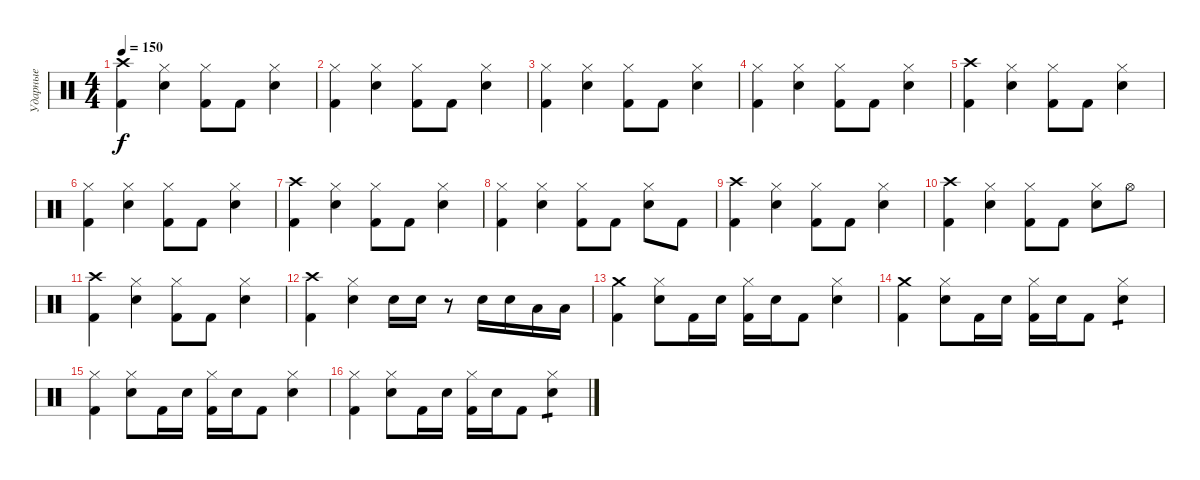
\track ("Ударные" "Ударные") {instrument percussion}
\staff {score}
\articulation defaults
\ts (4 4)
\tempo 150
\clef neutral
\ks c
("Crash high (hit)" "Kick (hit) 2").4{dy f} ("Hi-Hat (closed)" "Electric Snare (hit)").4 ("Hi-Hat (closed)" "Kick (hit) 2").8 "Kick (hit) 2".8 ("Hi-Hat (closed)" "Electric Snare (hit)").4 |
("Hi-Hat (closed)" "Kick (hit) 2").4 ("Hi-Hat (closed)" "Electric Snare (hit)").4 ("Hi-Hat (closed)" "Kick (hit) 2").8 "Kick (hit) 2".8 ("Hi-Hat (closed)" "Electric Snare (hit)").4 |
("Hi-Hat (closed)" "Kick (hit) 2").4 ("Hi-Hat (closed)" "Electric Snare (hit)").4 ("Hi-Hat (closed)" "Kick (hit) 2").8 "Kick (hit) 2".8 ("Hi-Hat (closed)" "Electric Snare (hit)").4 |
("Hi-Hat (closed)" "Kick (hit) 2").4 ("Hi-Hat (closed)" "Electric Snare (hit)").4 ("Hi-Hat (closed)" "Kick (hit) 2").8 "Kick (hit) 2".8 ("Hi-Hat (closed)" "Electric Snare (hit)").4 |
("Crash high (hit)" "Kick (hit) 2").4 ("Hi-Hat (closed)" "Electric Snare (hit)").4 ("Hi-Hat (closed)" "Kick (hit) 2").8 "Kick (hit) 2".8 ("Hi-Hat (closed)" "Electric Snare (hit)").4 |
("Hi-Hat (closed)" "Kick (hit) 2").4 ("Hi-Hat (closed)" "Electric Snare (hit)").4 ("Hi-Hat (closed)" "Kick (hit) 2").8 "Kick (hit) 2".8 ("Hi-Hat (closed)" "Electric Snare (hit)").4 |
("Crash high (hit)" "Kick (hit) 2").4 ("Hi-Hat (closed)" "Electric Snare (hit)").4 ("Hi-Hat (closed)" "Kick (hit) 2").8 "Kick (hit) 2".8 ("Hi-Hat (closed)" "Electric Snare (hit)").4 |
("Hi-Hat (closed)" "Kick (hit) 2").4 ("Hi-Hat (closed)" "Electric Snare (hit)").4 ("Hi-Hat (closed)" "Kick (hit) 2").8 "Kick (hit) 2".8 ("Hi-Hat (closed)" "Electric Snare (hit)").8 "Kick (hit) 2".8 |
("Crash high (hit)" "Kick (hit) 2").4 ("Hi-Hat (closed)" "Electric Snare (hit)").4 ("Hi-Hat (closed)" "Kick (hit) 2").8 "Kick (hit) 2".8 ("Hi-Hat (closed)" "Electric Snare (hit)").4 |
("Crash high (hit)" "Kick (hit) 2").4 ("Hi-Hat (closed)" "Electric Snare (hit)").4 ("Hi-Hat (closed)" "Kick (hit) 2").8 "Kick (hit) 2".8 ("Hi-Hat (closed)" "Electric Snare (hit)").8 "Hi-Hat (open)".8 |
("Crash high (hit)" "Kick (hit) 2").4 ("Hi-Hat (closed)" "Electric Snare (hit)").4 ("Hi-Hat (closed)" "Kick (hit) 2").8 "Kick (hit) 2".8 ("Hi-Hat (closed)" "Electric Snare (hit)").4 |
("Crash high (hit)" "Kick (hit) 2").4 ("Hi-Hat (closed)" "Electric Snare (hit)").4 "Electric Snare (hit)".16 "Electric Snare (hit)".16 r.8 "Electric Snare (hit)".16 "Electric Snare (hit)".16 "Low Tom (hit)".16 "Low Tom (hit)".16 |
("Crash medium (hit)" "Kick (hit) 2").4 ("Hi-Hat (closed)" "Electric Snare (hit)").8 "Kick (hit) 2".16 "Electric Snare (hit)".16 ("Hi-Hat (closed)" "Kick (hit) 2").16 "Electric Snare (hit)".16 "Kick (hit) 2".8 ("Hi-Hat (closed)" "Electric Snare (hit)").4 |
("Crash medium (hit)" "Kick (hit) 2").4 ("Hi-Hat (closed)" "Electric Snare (hit)").8 "Kick (hit) 2".16 "Electric Snare (hit)".16 ("Hi-Hat (closed)" "Kick (hit) 2").16 "Electric Snare (hit)".16 "Kick (hit) 2".8 ("Hi-Hat (closed)" "Electric Snare (hit)").4{tp 1} |
("Hi-Hat (closed)" "Kick (hit) 2").4 ("Hi-Hat (closed)" "Electric Snare (hit)").8 "Kick (hit) 2".16 "Electric Snare (hit)".16 ("Hi-Hat (closed)" "Kick (hit) 2").16 "Electric Snare (hit)".16 "Kick (hit) 2".8 ("Hi-Hat (closed)" "Electric Snare (hit)").4 |
("Hi-Hat (closed)" "Kick (hit) 2").4 ("Hi-Hat (closed)" "Electric Snare (hit)").8 "Kick (hit) 2".16 "Electric Snare (hit)".16 ("Hi-Hat (closed)" "Kick (hit) 2").16 "Electric Snare (hit)".16 "Kick (hit) 2".8 ("Hi-Hat (closed)" "Electric Snare (hit)").4{tp 1}
